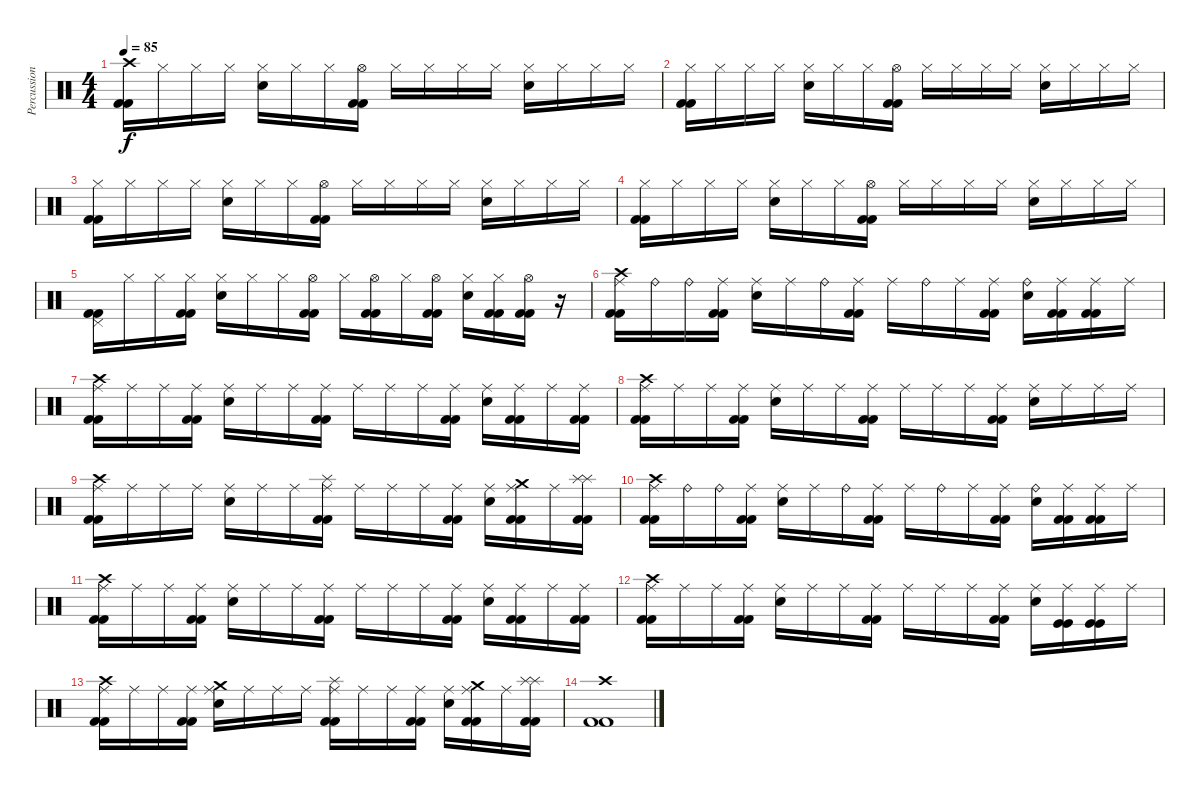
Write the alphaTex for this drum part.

\track ("Percussion" "Percussion") {instrument percussion}
\staff {score}
\articulation defaults
\ts (4 4)
\tempo 85
\clef neutral
\ks c
("Crash high (hit)" "Kick (hit) 2" "Kick (hit) 2").16{dy f} "Hi-Hat (closed)".16 "Hi-Hat (closed)".16 "Hi-Hat (closed)".16 ("Hi-Hat (closed)" "Electric Snare (hit)").16 "Hi-Hat (closed)".16 "Hi-Hat (closed)".16 ("Hi-Hat (open)" "Kick (hit) 2" "Kick (hit) 2").16 "Hi-Hat (closed)".16 "Hi-Hat (closed)".16 "Hi-Hat (closed)".16 "Hi-Hat (closed)".16 ("Hi-Hat (closed)" "Electric Snare (hit)").16 "Hi-Hat (closed)".16 "Hi-Hat (closed)".16 "Hi-Hat (closed)".16 |
("Hi-Hat (closed)" "Kick (hit) 2" "Kick (hit) 2").16 "Hi-Hat (closed)".16 "Hi-Hat (closed)".16 "Hi-Hat (closed)".16 ("Hi-Hat (closed)" "Electric Snare (hit)").16 "Hi-Hat (closed)".16 "Hi-Hat (closed)".16 ("Hi-Hat (open)" "Kick (hit) 2" "Kick (hit) 2").16 "Hi-Hat (closed)".16 "Hi-Hat (closed)".16 "Hi-Hat (closed)".16 "Hi-Hat (closed)".16 ("Hi-Hat (closed)" "Electric Snare (hit)").16 "Hi-Hat (closed)".16 "Hi-Hat (closed)".16 "Hi-Hat (closed)".16 |
("Hi-Hat (closed)" "Kick (hit) 2" "Kick (hit) 2").16 "Hi-Hat (closed)".16 "Hi-Hat (closed)".16 "Hi-Hat (closed)".16 ("Hi-Hat (closed)" "Electric Snare (hit)").16 "Hi-Hat (closed)".16 "Hi-Hat (closed)".16 ("Hi-Hat (open)" "Kick (hit) 2" "Kick (hit) 2").16 "Hi-Hat (closed)".16 "Hi-Hat (closed)".16 "Hi-Hat (closed)".16 "Hi-Hat (closed)".16 ("Hi-Hat (closed)" "Electric Snare (hit)").16 "Hi-Hat (closed)".16 "Hi-Hat (closed)".16 "Hi-Hat (closed)".16 |
("Hi-Hat (closed)" "Kick (hit) 2" "Kick (hit) 2").16 "Hi-Hat (closed)".16 "Hi-Hat (closed)".16 "Hi-Hat (closed)".16 ("Hi-Hat (closed)" "Electric Snare (hit)").16 "Hi-Hat (closed)".16 "Hi-Hat (closed)".16 ("Hi-Hat (open)" "Kick (hit) 2" "Kick (hit) 2").16 "Hi-Hat (closed)".16 "Hi-Hat (closed)".16 "Hi-Hat (closed)".16 "Hi-Hat (closed)".16 ("Hi-Hat (closed)" "Electric Snare (hit)").16 "Hi-Hat (closed)".16 "Hi-Hat (closed)".16 "Hi-Hat (closed)".16 |
("Pedal Hi-Hat (hit)" "Kick (hit) 2" "Kick (hit) 2").16 "Hi-Hat (closed)".16 "Hi-Hat (closed)".16 ("Hi-Hat (closed)" "Kick (hit) 2" "Kick (hit) 2").16 ("Hi-Hat (closed)" "Electric Snare (hit)").16 "Hi-Hat (closed)".16 "Hi-Hat (closed)".16 ("Hi-Hat (open)" "Kick (hit) 2" "Kick (hit) 2").16 "Hi-Hat (closed)".16 ("Hi-Hat (open)" "Kick (hit) 2" "Kick (hit) 2").16 "Hi-Hat (closed)".16 ("Hi-Hat (open)" "Kick (hit) 2" "Kick (hit) 2").16 ("Hi-Hat (closed)" "Electric Snare (hit)").16 ("Hi-Hat (closed)" "Kick (hit) 2" "Kick (hit) 2").16 ("Hi-Hat (open)" "Kick (hit) 2" "Kick (hit) 2").16 r.16 |
("Ride (middle)" "Crash high (hit)" "Kick (hit) 2" "Kick (hit) 2").16 "Ride (bell)".16 "Ride (bell)".16 ("Ride (middle)" "Kick (hit) 2" "Kick (hit) 2").16 ("Ride (middle)" "Electric Snare (hit)").16 "Ride (middle)".16 "Ride (bell)".16 ("Ride (middle)" "Kick (hit) 2" "Kick (hit) 2").16 "Ride (middle)".16 "Ride (bell)".16 "Ride (middle)".16 ("Ride (middle)" "Kick (hit) 2" "Kick (hit) 2").16 ("Ride (bell)" "Electric Snare (hit)").16 ("Ride (middle)" "Kick (hit) 2" "Kick (hit) 2").16 ("Ride (middle)" "Kick (hit) 2" "Kick (hit) 2").16 "Ride (middle)".16 |
("Ride (middle)" "Crash high (hit)" "Kick (hit) 2" "Kick (hit) 2").16 "Ride (middle)".16 "Ride (middle)".16 ("Ride (middle)" "Kick (hit) 2" "Kick (hit) 2").16 ("Ride (middle)" "Electric Snare (hit)").16 "Ride (middle)".16 "Ride (middle)".16 ("Ride (middle)" "Kick (hit) 2" "Kick (hit) 2").16 "Ride (middle)".16 "Ride (middle)".16 "Ride (middle)".16 ("Ride (middle)" "Kick (hit) 2" "Kick (hit) 2").16 ("Ride (middle)" "Electric Snare (hit)").16 ("Ride (middle)" "Kick (hit) 2" "Kick (hit) 2").16 "Ride (middle)".16 ("Ride (middle)" "Kick (hit) 2" "Kick (hit) 2").16 |
("Ride (middle)" "Crash high (hit)" "Kick (hit) 2" "Kick (hit) 2").16 "Ride (middle)".16 "Ride (middle)".16 ("Ride (middle)" "Kick (hit) 2" "Kick (hit) 2").16 ("Ride (middle)" "Electric Snare (hit)").16 "Ride (middle)".16 "Ride (middle)".16 ("Ride (middle)" "Kick (hit) 2" "Kick (hit) 2").16 "Ride (middle)".16 "Ride (middle)".16 "Ride (middle)".16 ("Ride (middle)" "Kick (hit) 2" "Kick (hit) 2").16 ("Ride (middle)" "Electric Snare (hit)").16 "Ride (middle)".16 "Ride (middle)".16 "Ride (middle)".16 |
("Ride (middle)" "Crash high (hit)" "Kick (hit) 2" "Kick (hit) 2").16 "Ride (middle)".16 "Ride (middle)".16 "Ride (middle)".16 ("Ride (middle)" "Electric Snare (hit)").16 "Ride (middle)".16 "Ride (middle)".16 ("Ride (middle)" "Splash (hit)" "Kick (hit) 2" "Kick (hit) 2").16 "Ride (middle)".16 "Ride (middle)".16 "Ride (middle)".16 ("Ride (middle)" "Kick (hit) 2" "Kick (hit) 2").16 ("Ride (middle)" "Electric Snare (hit)").16 ("Ride (middle)" "Crash medium (hit)" "Kick (hit) 2" "Kick (hit) 2").16 "Ride (middle)".16 ("Splash (hit)" "Splash (hit)" "Kick (hit) 2" "Kick (hit) 2").16 |
("Ride (middle)" "Crash high (hit)" "Kick (hit) 2" "Kick (hit) 2").16 "Ride (bell)".16 "Ride (bell)".16 ("Ride (middle)" "Kick (hit) 2" "Kick (hit) 2").16 ("Ride (middle)" "Electric Snare (hit)").16 "Ride (middle)".16 "Ride (bell)".16 ("Ride (middle)" "Kick (hit) 2" "Kick (hit) 2").16 "Ride (middle)".16 "Ride (bell)".16 "Ride (middle)".16 ("Ride (middle)" "Kick (hit) 2" "Kick (hit) 2").16 ("Ride (bell)" "Electric Snare (hit)").16 ("Ride (middle)" "Kick (hit) 2" "Kick (hit) 2").16 ("Ride (middle)" "Kick (hit) 2" "Kick (hit) 2").16 "Ride (middle)".16 |
("Ride (middle)" "Crash high (hit)" "Kick (hit) 2" "Kick (hit) 2").16 "Ride (middle)".16 "Ride (middle)".16 ("Ride (middle)" "Kick (hit) 2" "Kick (hit) 2").16 ("Ride (middle)" "Electric Snare (hit)").16 "Ride (middle)".16 "Ride (middle)".16 ("Ride (middle)" "Kick (hit) 2" "Kick (hit) 2").16 "Ride (middle)".16 "Ride (middle)".16 "Ride (middle)".16 ("Ride (middle)" "Kick (hit) 2" "Kick (hit) 2").16 ("Ride (middle)" "Electric Snare (hit)").16 ("Ride (middle)" "Kick (hit) 2" "Kick (hit) 2").16 "Ride (middle)".16 ("Ride (middle)" "Kick (hit) 2" "Kick (hit) 2").16 |
("Ride (middle)" "Crash high (hit)" "Kick (hit) 2" "Kick (hit) 2").16 "Ride (middle)".16 "Ride (middle)".16 ("Ride (middle)" "Kick (hit) 2" "Kick (hit) 2").16 ("Ride (middle)" "Electric Snare (hit)").16 "Ride (middle)".16 "Ride (middle)".16 ("Ride (middle)" "Kick (hit) 2" "Kick (hit) 2").16 "Ride (middle)".16 "Ride (middle)".16 "Ride (middle)".16 ("Ride (middle)" "Kick (hit) 2" "Kick (hit) 2").16 ("Ride (middle)" "Electric Snare (hit)").16 ("Ride (middle)" "Kick (hit)" "Kick (hit)").16 ("Ride (middle)" "Kick (hit)" "Kick (hit)").16 "Ride (middle)".16 |
("Ride (middle)" "Crash high (hit)" "Kick (hit) 2" "Kick (hit) 2").16 "Ride (middle)".16 "Ride (middle)".16 ("Ride (middle)" "Kick (hit) 2" "Kick (hit) 2").16 ("Ride (middle)" "Crash medium (hit)" "Electric Snare (hit)").16 "Ride (middle)".16 "Ride (middle)".16 "Ride (middle)".16 ("Ride (middle)" "Splash (hit)" "Kick (hit) 2" "Kick (hit) 2").16 "Ride (middle)".16 "Ride (middle)".16 ("Ride (middle)" "Kick (hit) 2" "Kick (hit) 2").16 ("Ride (middle)" "Electric Snare (hit)").16 ("Ride (middle)" "Crash medium (hit)" "Kick (hit) 2" "Kick (hit) 2").16 "Ride (middle)".16 ("Splash (hit)" "Splash (hit)" "Kick (hit) 2" "Kick (hit) 2").16 |
("Crash high (hit)" "Kick (hit) 2" "Kick (hit) 2").1
